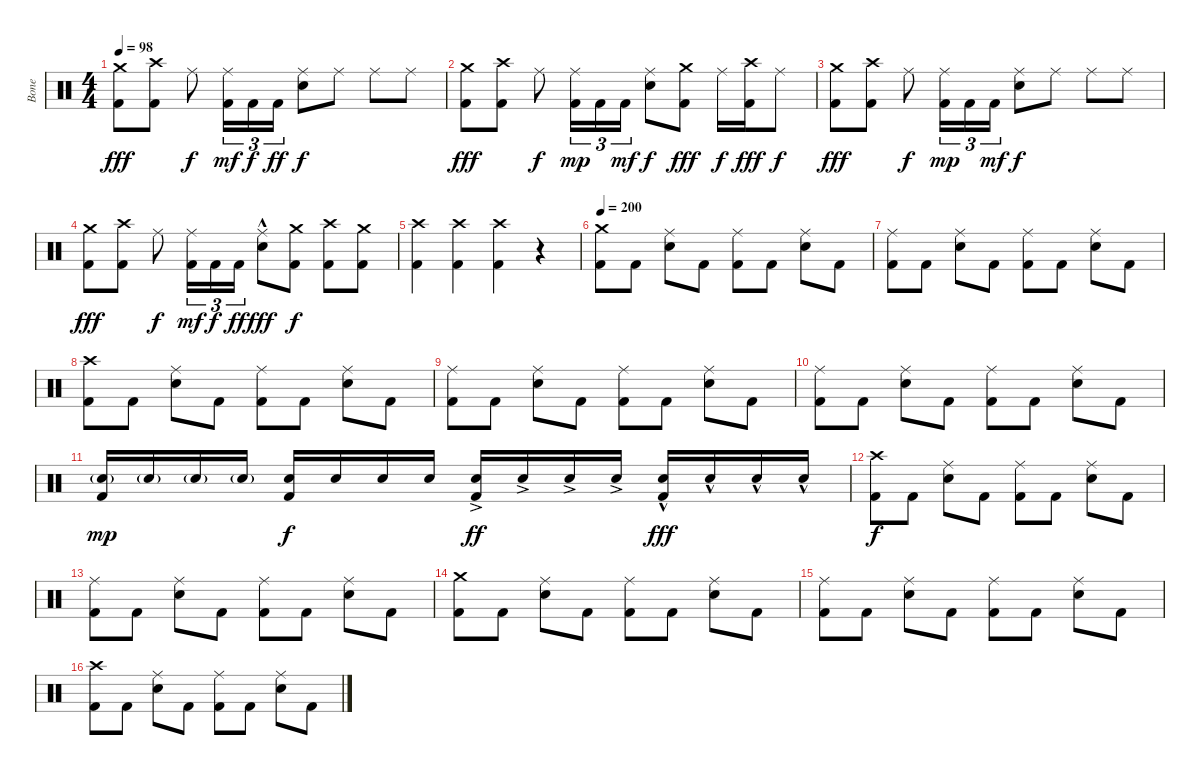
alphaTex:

\track ("Bone " "Bone ") {instrument percussion}
\staff {score}
\articulation defaults
\ts (4 4)
\tempo 98
\clef neutral
\ks c
("Crash medium (hit)" "Kick (hit) 2").8{dy fff} ("Crash high (hit)" "Kick (hit) 2").8 "Ride (middle)".8{dy f} ("Ride (middle)" "Kick (hit) 2").16{tu (3 2) dy mf} "Kick (hit) 2".16{tu (3 2) dy f} "Kick (hit) 2".16{tu (3 2) dy ff} ("Ride (middle)" "Electric Snare (hit)").8{dy f} "Ride (middle)".8 "Ride (middle)".8 "Ride (middle)".8 |
("Crash medium (hit)" "Kick (hit) 2").8{dy fff} ("Crash high (hit)" "Kick (hit) 2").8 "Ride (middle)".8{dy f} ("Ride (middle)" "Kick (hit) 2").16{tu (3 2) dy mp} "Kick (hit) 2".16{tu (3 2)} "Kick (hit) 2".16{tu (3 2) dy mf} ("Ride (middle)" "Electric Snare (hit)").8{dy f} ("Crash medium (hit)" "Kick (hit) 2").8{dy fff} "Ride (middle)".16{dy f} ("Crash high (hit)" "Kick (hit) 2").16{dy fff} "Ride (middle)".8{dy f} |
("Crash medium (hit)" "Kick (hit) 2").8{dy fff} ("Crash high (hit)" "Kick (hit) 2").8 "Ride (middle)".8{dy f} ("Ride (middle)" "Kick (hit) 2").16{tu (3 2) dy mp} "Kick (hit) 2".16{tu (3 2)} "Kick (hit) 2".16{tu (3 2) dy mf} ("Ride (middle)" "Electric Snare (hit)").8{dy f} "Ride (middle)".8 "Ride (middle)".8 "Ride (middle)".8 |
("Crash medium (hit)" "Kick (hit) 2").8{dy fff} ("Crash high (hit)" "Kick (hit) 2").8 "Ride (middle)".8{dy f} ("Ride (middle)" "Kick (hit) 2").16{tu (3 2) dy mf} "Kick (hit) 2".16{tu (3 2) dy f} "Kick (hit) 2".16{tu (3 2) dy ff} ("Ride (middle)"{hac} "Electric Snare (hit)"{hac}).8{dy fff} ("Crash medium (hit)" "Kick (hit) 2").8{dy f} ("Crash high (hit)" "Kick (hit) 2").8 ("Crash medium (hit)" "Kick (hit) 2").8 |
("Crash high (hit)" "Kick (hit) 2").4 ("Crash high (hit)" "Kick (hit) 2").4 ("Crash high (hit)" "Kick (hit) 2").4 r.4 |
\tempo 200
("Crash medium (hit)" "Kick (hit) 2").8 "Kick (hit) 2".8 ("Ride (middle)" "Electric Snare (hit)").8 "Kick (hit) 2".8 ("Ride (middle)" "Kick (hit) 2").8 "Kick (hit) 2".8 ("Ride (middle)" "Electric Snare (hit)").8 "Kick (hit) 2".8 |
("Ride (middle)" "Kick (hit) 2").8 "Kick (hit) 2".8 ("Ride (middle)" "Electric Snare (hit)").8 "Kick (hit) 2".8 ("Ride (middle)" "Kick (hit) 2").8 "Kick (hit) 2".8 ("Ride (middle)" "Electric Snare (hit)").8 "Kick (hit) 2".8 |
("Crash high (hit)" "Kick (hit) 2").8 "Kick (hit) 2".8 ("Ride (middle)" "Electric Snare (hit)").8 "Kick (hit) 2".8 ("Ride (middle)" "Kick (hit) 2").8 "Kick (hit) 2".8 ("Ride (middle)" "Electric Snare (hit)").8 "Kick (hit) 2".8 |
("Ride (middle)" "Kick (hit) 2").8 "Kick (hit) 2".8 ("Ride (middle)" "Electric Snare (hit)").8 "Kick (hit) 2".8 ("Ride (middle)" "Kick (hit) 2").8 "Kick (hit) 2".8 ("Ride (middle)" "Electric Snare (hit)").8 "Kick (hit) 2".8 |
("Ride (middle)" "Kick (hit) 2").8 "Kick (hit) 2".8 ("Ride (middle)" "Electric Snare (hit)").8 "Kick (hit) 2".8 ("Ride (middle)" "Kick (hit) 2").8 "Kick (hit) 2".8 ("Ride (middle)" "Electric Snare (hit)").8 "Kick (hit) 2".8 |
("Electric Snare (hit)"{g} "Kick (hit) 2").16{dy mp} "Electric Snare (hit)"{g}.16 "Electric Snare (hit)"{g}.16 "Electric Snare (hit)"{g}.16 ("Electric Snare (hit)" "Kick (hit) 2").16{dy f} "Electric Snare (hit)".16 "Electric Snare (hit)".16 "Electric Snare (hit)".16 ("Electric Snare (hit)"{ac} "Kick (hit) 2").16{dy ff} "Electric Snare (hit)"{ac}.16 "Electric Snare (hit)"{ac}.16 "Electric Snare (hit)"{ac}.16 ("Electric Snare (hit)"{hac} "Kick (hit) 2").16{dy fff} "Electric Snare (hit)"{hac}.16 "Electric Snare (hit)"{hac}.16 "Electric Snare (hit)"{hac}.16 |
("Crash high (hit)" "Kick (hit) 2").8{dy f} "Kick (hit) 2".8 ("Ride (middle)" "Electric Snare (hit)").8 "Kick (hit) 2".8 ("Ride (middle)" "Kick (hit) 2").8 "Kick (hit) 2".8 ("Ride (middle)" "Electric Snare (hit)").8 "Kick (hit) 2".8 |
("Ride (middle)" "Kick (hit) 2").8 "Kick (hit) 2".8 ("Ride (middle)" "Electric Snare (hit)").8 "Kick (hit) 2".8 ("Ride (middle)" "Kick (hit) 2").8 "Kick (hit) 2".8 ("Ride (middle)" "Electric Snare (hit)").8 "Kick (hit) 2".8 |
("Crash medium (hit)" "Kick (hit) 2").8 "Kick (hit) 2".8 ("Ride (middle)" "Electric Snare (hit)").8 "Kick (hit) 2".8 ("Ride (middle)" "Kick (hit) 2").8 "Kick (hit) 2".8 ("Ride (middle)" "Electric Snare (hit)").8 "Kick (hit) 2".8 |
("Ride (middle)" "Kick (hit) 2").8 "Kick (hit) 2".8 ("Ride (middle)" "Electric Snare (hit)").8 "Kick (hit) 2".8 ("Ride (middle)" "Kick (hit) 2").8 "Kick (hit) 2".8 ("Ride (middle)" "Electric Snare (hit)").8 "Kick (hit) 2".8 |
("Crash high (hit)" "Kick (hit) 2").8 "Kick (hit) 2".8 ("Ride (middle)" "Electric Snare (hit)").8 "Kick (hit) 2".8 ("Ride (middle)" "Kick (hit) 2").8 "Kick (hit) 2".8 ("Ride (middle)" "Electric Snare (hit)").8 "Kick (hit) 2".8
